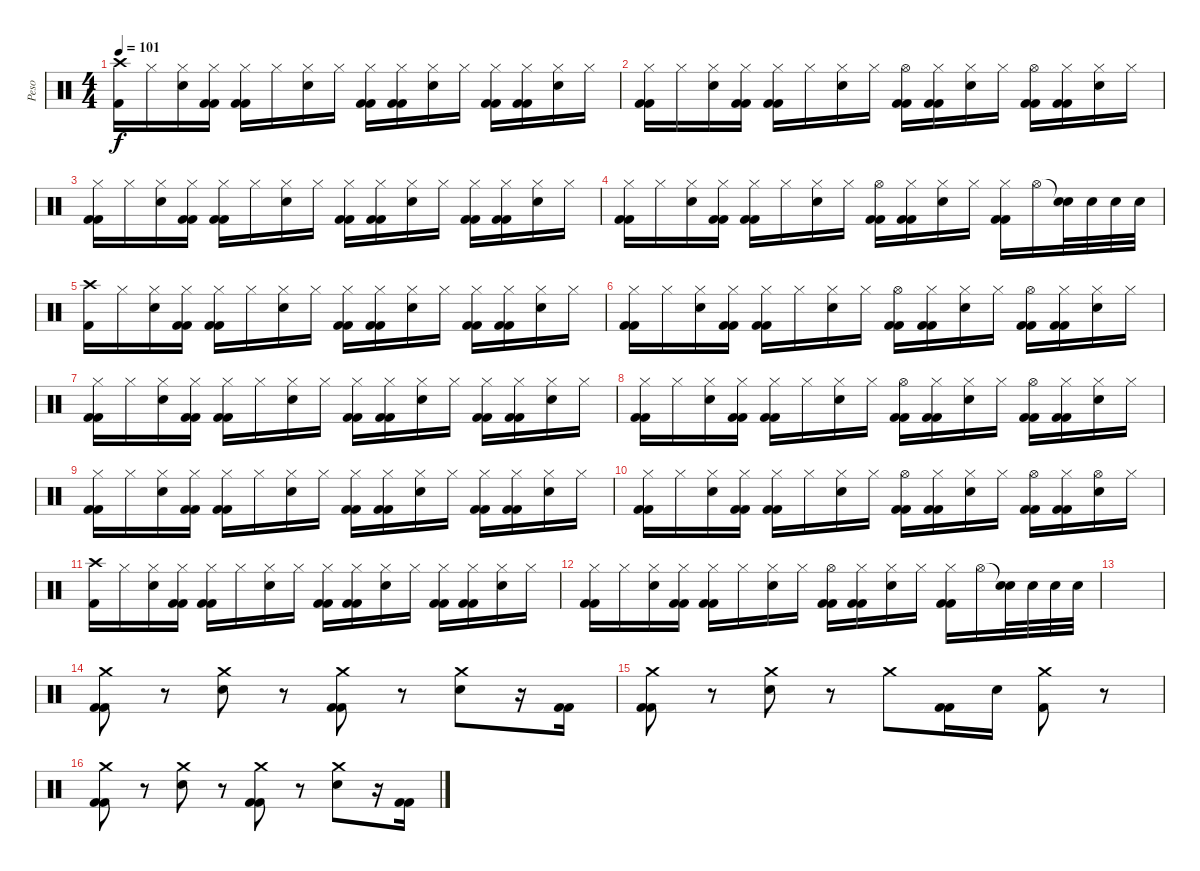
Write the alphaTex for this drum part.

\track ("Peso" "Peso") {instrument percussion}
\staff {score}
\articulation defaults
\ts (4 4)
\tempo 101
\clef neutral
\ks c
("Crash high (hit)" "Kick (hit) 2").16{dy f} "Hi-Hat (closed)".16 ("Hi-Hat (closed)" "Snare (hit) 2").16 ("Hi-Hat (closed)" "Kick (hit) 2" "Kick (hit) 2").16 ("Hi-Hat (closed)" "Kick (hit) 2" "Kick (hit) 2").16 "Hi-Hat (closed)".16 ("Hi-Hat (closed)" "Snare (hit) 2").16 "Hi-Hat (closed)".16 ("Hi-Hat (closed)" "Kick (hit) 2" "Kick (hit) 2").16 ("Hi-Hat (closed)" "Kick (hit) 2" "Kick (hit) 2").16 ("Hi-Hat (closed)" "Snare (hit) 2").16 "Hi-Hat (closed)".16 ("Hi-Hat (closed)" "Kick (hit) 2" "Kick (hit) 2").16 ("Hi-Hat (closed)" "Kick (hit) 2" "Kick (hit) 2").16 ("Hi-Hat (closed)" "Snare (hit) 2").16 "Hi-Hat (closed)".16 |
("Hi-Hat (closed)" "Kick (hit) 2" "Kick (hit) 2").16 "Hi-Hat (closed)".16 ("Hi-Hat (closed)" "Snare (hit) 2").16 ("Hi-Hat (closed)" "Kick (hit) 2" "Kick (hit) 2").16 ("Hi-Hat (closed)" "Kick (hit) 2" "Kick (hit) 2").16 "Hi-Hat (closed)".16 ("Hi-Hat (closed)" "Snare (hit) 2").16 "Hi-Hat (closed)".16 ("Hi-Hat (open)" "Kick (hit) 2" "Kick (hit) 2").16 ("Hi-Hat (closed)" "Kick (hit) 2" "Kick (hit) 2").16 ("Hi-Hat (closed)" "Snare (hit) 2").16 "Hi-Hat (closed)".16 ("Hi-Hat (open)" "Kick (hit) 2" "Kick (hit) 2").16 ("Hi-Hat (closed)" "Kick (hit) 2" "Kick (hit) 2").16 ("Hi-Hat (closed)" "Snare (hit) 2").16 "Hi-Hat (closed)".16 |
("Hi-Hat (closed)" "Kick (hit) 2" "Kick (hit) 2").16 "Hi-Hat (closed)".16 ("Hi-Hat (closed)" "Snare (hit) 2").16 ("Hi-Hat (closed)" "Kick (hit) 2" "Kick (hit) 2").16 ("Hi-Hat (closed)" "Kick (hit) 2" "Kick (hit) 2").16 "Hi-Hat (closed)".16 ("Hi-Hat (closed)" "Snare (hit) 2").16 "Hi-Hat (closed)".16 ("Hi-Hat (closed)" "Kick (hit) 2" "Kick (hit) 2").16 ("Hi-Hat (closed)" "Kick (hit) 2" "Kick (hit) 2").16 ("Hi-Hat (closed)" "Snare (hit) 2").16 "Hi-Hat (closed)".16 ("Hi-Hat (closed)" "Kick (hit) 2" "Kick (hit) 2").16 ("Hi-Hat (closed)" "Kick (hit) 2" "Kick (hit) 2").16 ("Hi-Hat (closed)" "Snare (hit) 2").16 "Hi-Hat (closed)".16 |
("Hi-Hat (closed)" "Kick (hit) 2" "Kick (hit) 2").16 "Hi-Hat (closed)".16 ("Hi-Hat (closed)" "Snare (hit) 2").16 ("Hi-Hat (closed)" "Kick (hit) 2" "Kick (hit) 2").16 ("Hi-Hat (closed)" "Kick (hit) 2" "Kick (hit) 2").16 "Hi-Hat (closed)".16 ("Hi-Hat (closed)" "Snare (hit) 2").16 "Hi-Hat (closed)".16 ("Hi-Hat (open)" "Kick (hit) 2" "Kick (hit) 2").16 ("Hi-Hat (closed)" "Kick (hit) 2" "Kick (hit) 2").16 ("Hi-Hat (closed)" "Snare (hit) 2").16 "Hi-Hat (closed)".16 ("Hi-Hat (closed)" "Kick (hit) 2" "Kick (hit) 2").16 "Hi-Hat (open)".16 ("Snare (hit)"{t} "Snare (hit) 2").32 "Snare (hit) 2".32 "Snare (hit) 2".32 "Snare (hit) 2".32 |
("Crash high (hit)" "Kick (hit) 2").16 "Hi-Hat (closed)".16 ("Hi-Hat (closed)" "Snare (hit) 2").16 ("Hi-Hat (closed)" "Kick (hit) 2" "Kick (hit) 2").16 ("Hi-Hat (closed)" "Kick (hit) 2" "Kick (hit) 2").16 "Hi-Hat (closed)".16 ("Hi-Hat (closed)" "Snare (hit) 2").16 "Hi-Hat (closed)".16 ("Hi-Hat (closed)" "Kick (hit) 2" "Kick (hit) 2").16 ("Hi-Hat (closed)" "Kick (hit) 2" "Kick (hit) 2").16 ("Hi-Hat (closed)" "Snare (hit) 2").16 "Hi-Hat (closed)".16 ("Hi-Hat (closed)" "Kick (hit) 2" "Kick (hit) 2").16 ("Hi-Hat (closed)" "Kick (hit) 2" "Kick (hit) 2").16 ("Hi-Hat (closed)" "Snare (hit) 2").16 "Hi-Hat (closed)".16 |
("Hi-Hat (closed)" "Kick (hit) 2" "Kick (hit) 2").16 "Hi-Hat (closed)".16 ("Hi-Hat (closed)" "Snare (hit) 2").16 ("Hi-Hat (closed)" "Kick (hit) 2" "Kick (hit) 2").16 ("Hi-Hat (closed)" "Kick (hit) 2" "Kick (hit) 2").16 "Hi-Hat (closed)".16 ("Hi-Hat (closed)" "Snare (hit) 2").16 "Hi-Hat (closed)".16 ("Hi-Hat (open)" "Kick (hit) 2" "Kick (hit) 2").16 ("Hi-Hat (closed)" "Kick (hit) 2" "Kick (hit) 2").16 ("Hi-Hat (closed)" "Snare (hit) 2").16 "Hi-Hat (closed)".16 ("Hi-Hat (open)" "Kick (hit) 2" "Kick (hit) 2").16 ("Hi-Hat (closed)" "Kick (hit) 2" "Kick (hit) 2").16 ("Hi-Hat (closed)" "Snare (hit) 2").16 "Hi-Hat (closed)".16 |
("Hi-Hat (closed)" "Kick (hit) 2" "Kick (hit) 2").16 "Hi-Hat (closed)".16 ("Hi-Hat (closed)" "Snare (hit) 2").16 ("Hi-Hat (closed)" "Kick (hit) 2" "Kick (hit) 2").16 ("Hi-Hat (closed)" "Kick (hit) 2" "Kick (hit) 2").16 "Hi-Hat (closed)".16 ("Hi-Hat (closed)" "Snare (hit) 2").16 "Hi-Hat (closed)".16 ("Hi-Hat (closed)" "Kick (hit) 2" "Kick (hit) 2").16 ("Hi-Hat (closed)" "Kick (hit) 2" "Kick (hit) 2").16 ("Hi-Hat (closed)" "Snare (hit) 2").16 "Hi-Hat (closed)".16 ("Hi-Hat (closed)" "Kick (hit) 2" "Kick (hit) 2").16 ("Hi-Hat (closed)" "Kick (hit) 2" "Kick (hit) 2").16 ("Hi-Hat (closed)" "Snare (hit) 2").16 "Hi-Hat (closed)".16 |
("Hi-Hat (closed)" "Kick (hit) 2" "Kick (hit) 2").16 "Hi-Hat (closed)".16 ("Hi-Hat (closed)" "Snare (hit) 2").16 ("Hi-Hat (closed)" "Kick (hit) 2" "Kick (hit) 2").16 ("Hi-Hat (closed)" "Kick (hit) 2" "Kick (hit) 2").16 "Hi-Hat (closed)".16 ("Hi-Hat (closed)" "Snare (hit) 2").16 "Hi-Hat (closed)".16 ("Hi-Hat (open)" "Kick (hit) 2" "Kick (hit) 2").16 ("Hi-Hat (closed)" "Kick (hit) 2" "Kick (hit) 2").16 ("Hi-Hat (closed)" "Snare (hit) 2").16 "Hi-Hat (closed)".16 ("Hi-Hat (open)" "Kick (hit) 2" "Kick (hit) 2").16 ("Hi-Hat (closed)" "Kick (hit) 2" "Kick (hit) 2").16 ("Hi-Hat (closed)" "Snare (hit) 2").16 "Hi-Hat (closed)".16 |
("Hi-Hat (closed)" "Kick (hit) 2" "Kick (hit) 2").16 "Hi-Hat (closed)".16 ("Hi-Hat (closed)" "Snare (hit) 2").16 ("Hi-Hat (closed)" "Kick (hit) 2" "Kick (hit) 2").16 ("Hi-Hat (closed)" "Kick (hit) 2" "Kick (hit) 2").16 "Hi-Hat (closed)".16 ("Hi-Hat (closed)" "Snare (hit) 2").16 "Hi-Hat (closed)".16 ("Hi-Hat (closed)" "Kick (hit) 2" "Kick (hit) 2").16 ("Hi-Hat (closed)" "Kick (hit) 2" "Kick (hit) 2").16 ("Hi-Hat (closed)" "Snare (hit) 2").16 "Hi-Hat (closed)".16 ("Hi-Hat (closed)" "Kick (hit) 2" "Kick (hit) 2").16 ("Hi-Hat (closed)" "Kick (hit) 2" "Kick (hit) 2").16 ("Hi-Hat (closed)" "Snare (hit) 2").16 "Hi-Hat (closed)".16 |
("Hi-Hat (closed)" "Kick (hit) 2" "Kick (hit) 2").16 "Hi-Hat (closed)".16 ("Hi-Hat (closed)" "Snare (hit) 2").16 ("Hi-Hat (closed)" "Kick (hit) 2" "Kick (hit) 2").16 ("Hi-Hat (closed)" "Kick (hit) 2" "Kick (hit) 2").16 "Hi-Hat (closed)".16 ("Hi-Hat (closed)" "Snare (hit) 2").16 "Hi-Hat (closed)".16 ("Hi-Hat (open)" "Kick (hit) 2" "Kick (hit) 2").16 ("Hi-Hat (closed)" "Kick (hit) 2" "Kick (hit) 2").16 ("Hi-Hat (closed)" "Snare (hit) 2").16 "Hi-Hat (closed)".16 ("Hi-Hat (open)" "Kick (hit) 2" "Kick (hit) 2").16 ("Hi-Hat (closed)" "Kick (hit) 2" "Kick (hit) 2").16 ("Hi-Hat (open)" "Snare (hit) 2").16 "Hi-Hat (closed)".16 |
("Crash high (hit)" "Kick (hit) 2").16 "Hi-Hat (closed)".16 ("Hi-Hat (closed)" "Snare (hit) 2").16 ("Hi-Hat (closed)" "Kick (hit) 2" "Kick (hit) 2").16 ("Hi-Hat (closed)" "Kick (hit) 2" "Kick (hit) 2").16 "Hi-Hat (closed)".16 ("Hi-Hat (closed)" "Snare (hit) 2").16 "Hi-Hat (closed)".16 ("Hi-Hat (closed)" "Kick (hit) 2" "Kick (hit) 2").16 ("Hi-Hat (closed)" "Kick (hit) 2" "Kick (hit) 2").16 ("Hi-Hat (closed)" "Snare (hit) 2").16 "Hi-Hat (closed)".16 ("Hi-Hat (closed)" "Kick (hit) 2" "Kick (hit) 2").16 ("Hi-Hat (closed)" "Kick (hit) 2" "Kick (hit) 2").16 ("Hi-Hat (closed)" "Snare (hit) 2").16 "Hi-Hat (closed)".16 |
("Hi-Hat (closed)" "Kick (hit) 2" "Kick (hit) 2").16 "Hi-Hat (closed)".16 ("Hi-Hat (closed)" "Snare (hit) 2").16 ("Hi-Hat (closed)" "Kick (hit) 2" "Kick (hit) 2").16 ("Hi-Hat (closed)" "Kick (hit) 2" "Kick (hit) 2").16 "Hi-Hat (closed)".16 ("Hi-Hat (closed)" "Snare (hit) 2").16 "Hi-Hat (closed)".16 ("Hi-Hat (open)" "Kick (hit) 2" "Kick (hit) 2").16 ("Hi-Hat (closed)" "Kick (hit) 2" "Kick (hit) 2").16 ("Hi-Hat (closed)" "Snare (hit) 2").16 "Hi-Hat (closed)".16 ("Hi-Hat (closed)" "Kick (hit) 2" "Kick (hit) 2").16 "Hi-Hat (open)".16 ("Snare (hit)"{t} "Snare (hit) 2").32 "Snare (hit) 2".32 "Snare (hit) 2".32 "Snare (hit) 2".32 |
|
("Crash medium (hit)" "Kick (hit) 2" "Kick (hit) 2").8 r.8 ("Crash medium (hit)" "Snare (hit) 2").8 r.8 ("Crash medium (hit)" "Kick (hit) 2" "Kick (hit) 2").8 r.8 ("Crash medium (hit)" "Snare (hit) 2").8 r.16 ("Kick (hit) 2" "Kick (hit) 2").16 |
("Crash medium (hit)" "Kick (hit) 2" "Kick (hit) 2").8 r.8 ("Crash medium (hit)" "Snare (hit) 2").8 r.8 "Crash medium (hit)".8 ("Kick (hit) 2" "Kick (hit) 2").16 "Snare (hit) 2".16 ("Crash medium (hit)" "Kick (hit) 2").8 r.8 |
("Crash medium (hit)" "Kick (hit) 2" "Kick (hit) 2").8 r.8 ("Crash medium (hit)" "Snare (hit) 2").8 r.8 ("Crash medium (hit)" "Kick (hit) 2" "Kick (hit) 2").8 r.8 ("Crash medium (hit)" "Snare (hit) 2").8 r.16 ("Kick (hit) 2" "Kick (hit) 2").16
